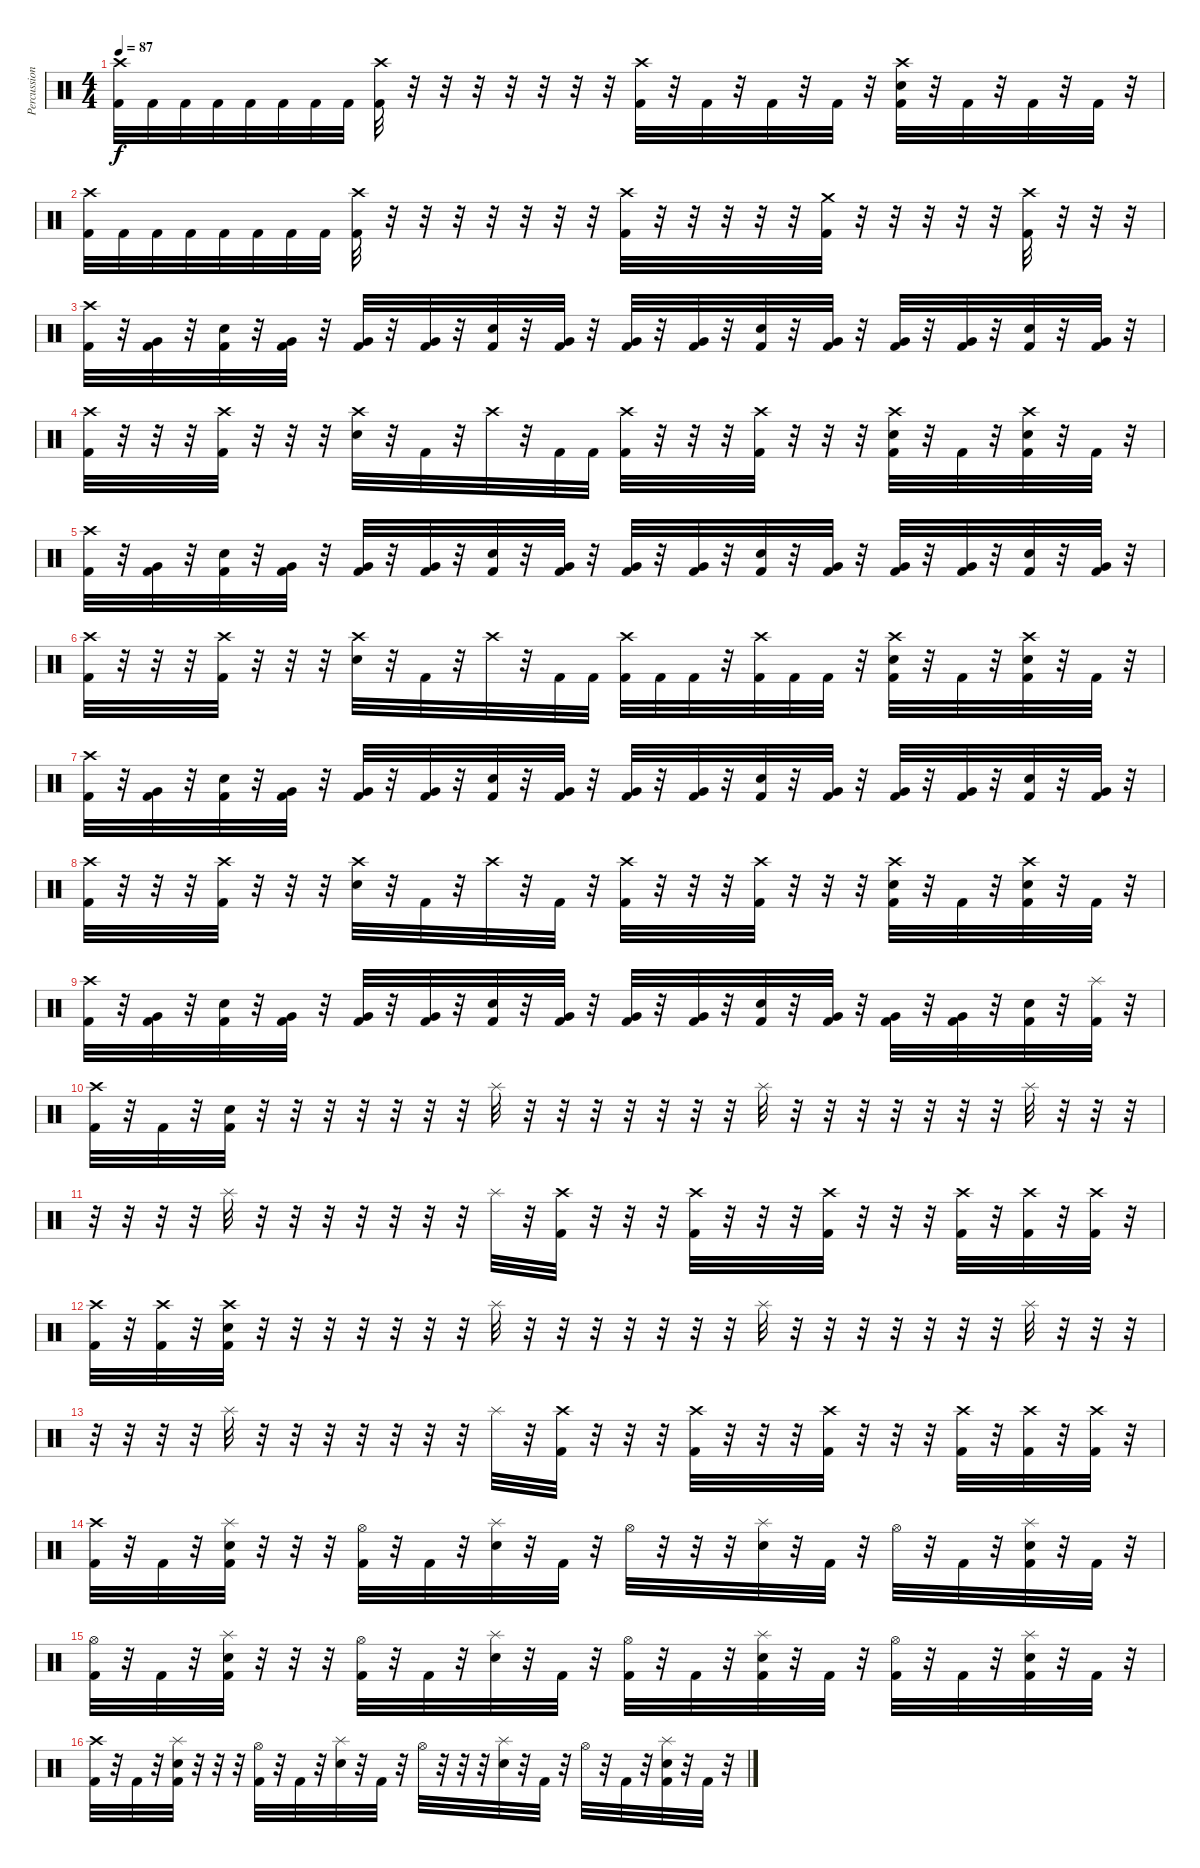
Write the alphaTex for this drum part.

\track ("Percussion" "Percussion") {instrument percussion}
\staff {score}
\articulation defaults
\ts (4 4)
\tempo 87
\clef neutral
\ks c
("Crash high (hit)" "Kick (hit) 2").32{dy f} "Kick (hit) 2".32 "Kick (hit) 2".32 "Kick (hit) 2".32 "Kick (hit) 2".32 "Kick (hit) 2".32 "Kick (hit) 2".32 "Kick (hit) 2".32 ("Crash high (hit)" "Kick (hit) 2").32 r.32 r.32 r.32 r.32 r.32 r.32 r.32 ("Crash high (hit)" "Kick (hit) 2").32 r.32 "Kick (hit) 2".32 r.32 "Kick (hit) 2".32 r.32 "Kick (hit) 2".32 r.32 ("Crash high (hit)" "Electric Snare (hit)" "Kick (hit) 2").32 r.32 "Kick (hit) 2".32 r.32 "Kick (hit) 2".32 r.32 "Kick (hit) 2".32 r.32 |
("Crash high (hit)" "Kick (hit) 2").32 "Kick (hit) 2".32 "Kick (hit) 2".32 "Kick (hit) 2".32 "Kick (hit) 2".32 "Kick (hit) 2".32 "Kick (hit) 2".32 "Kick (hit) 2".32 ("Crash high (hit)" "Kick (hit) 2").32 r.32 r.32 r.32 r.32 r.32 r.32 r.32 ("Crash high (hit)" "Kick (hit) 2").32 r.32 r.32 r.32 r.32 r.32 ("Crash medium (hit)" "Kick (hit) 2").32 r.32 r.32 r.32 r.32 r.32 ("Crash high (hit)" "Kick (hit) 2").32 r.32 r.32 r.32 |
("Crash high (hit)" "Kick (hit) 2").32 r.32 ("Very Low Tom (hit)" "Kick (hit) 2").32 r.32 ("Electric Snare (hit)" "Kick (hit) 2").32 r.32 ("Very Low Tom (hit)" "Kick (hit) 2").32 r.32 ("Very Low Tom (hit)" "Kick (hit) 2").32 r.32 ("Very Low Tom (hit)" "Kick (hit) 2").32 r.32 ("Electric Snare (hit)" "Kick (hit) 2").32 r.32 ("Very Low Tom (hit)" "Kick (hit) 2").32 r.32 ("Very Low Tom (hit)" "Kick (hit) 2").32 r.32 ("Very Low Tom (hit)" "Kick (hit) 2").32 r.32 ("Electric Snare (hit)" "Kick (hit) 2").32 r.32 ("Very Low Tom (hit)" "Kick (hit) 2").32 r.32 ("Very Low Tom (hit)" "Kick (hit) 2").32 r.32 ("Very Low Tom (hit)" "Kick (hit) 2").32 r.32 ("Electric Snare (hit)" "Kick (hit) 2").32 r.32 ("Very Low Tom (hit)" "Kick (hit) 2").32 r.32 |
("Crash high (hit)" "Kick (hit) 2").32 r.32 r.32 r.32 ("Crash high (hit)" "Kick (hit) 2").32 r.32 r.32 r.32 ("Crash high (hit)" "Electric Snare (hit)").32 r.32 "Kick (hit) 2".32 r.32 "Crash high (hit)".32 r.32 "Kick (hit) 2".32 "Kick (hit) 2".32 ("Crash high (hit)" "Kick (hit) 2").32 r.32 r.32 r.32 ("Crash high (hit)" "Kick (hit) 2").32 r.32 r.32 r.32 ("Crash high (hit)" "Electric Snare (hit)" "Kick (hit) 2").32 r.32 "Kick (hit) 2".32 r.32 ("Crash high (hit)" "Electric Snare (hit)" "Kick (hit) 2").32 r.32 "Kick (hit) 2".32 r.32 |
("Crash high (hit)" "Kick (hit) 2").32 r.32 ("Very Low Tom (hit)" "Kick (hit) 2").32 r.32 ("Electric Snare (hit)" "Kick (hit) 2").32 r.32 ("Very Low Tom (hit)" "Kick (hit) 2").32 r.32 ("Very Low Tom (hit)" "Kick (hit) 2").32 r.32 ("Very Low Tom (hit)" "Kick (hit) 2").32 r.32 ("Electric Snare (hit)" "Kick (hit) 2").32 r.32 ("Very Low Tom (hit)" "Kick (hit) 2").32 r.32 ("Very Low Tom (hit)" "Kick (hit) 2").32 r.32 ("Very Low Tom (hit)" "Kick (hit) 2").32 r.32 ("Electric Snare (hit)" "Kick (hit) 2").32 r.32 ("Very Low Tom (hit)" "Kick (hit) 2").32 r.32 ("Very Low Tom (hit)" "Kick (hit) 2").32 r.32 ("Very Low Tom (hit)" "Kick (hit) 2").32 r.32 ("Electric Snare (hit)" "Kick (hit) 2").32 r.32 ("Very Low Tom (hit)" "Kick (hit) 2").32 r.32 |
("Crash high (hit)" "Kick (hit) 2").32 r.32 r.32 r.32 ("Crash high (hit)" "Kick (hit) 2").32 r.32 r.32 r.32 ("Crash high (hit)" "Electric Snare (hit)").32 r.32 "Kick (hit) 2".32 r.32 "Crash high (hit)".32 r.32 "Kick (hit) 2".32 "Kick (hit) 2".32 ("Crash high (hit)" "Kick (hit) 2").32 "Kick (hit) 2".32 "Kick (hit) 2".32 r.32 ("Crash high (hit)" "Kick (hit) 2").32 "Kick (hit) 2".32 "Kick (hit) 2".32 r.32 ("Crash high (hit)" "Electric Snare (hit)" "Kick (hit) 2").32 r.32 "Kick (hit) 2".32 r.32 ("Crash high (hit)" "Electric Snare (hit)" "Kick (hit) 2").32 r.32 "Kick (hit) 2".32 r.32 |
("Crash high (hit)" "Kick (hit) 2").32 r.32 ("Very Low Tom (hit)" "Kick (hit) 2").32 r.32 ("Electric Snare (hit)" "Kick (hit) 2").32 r.32 ("Very Low Tom (hit)" "Kick (hit) 2").32 r.32 ("Very Low Tom (hit)" "Kick (hit) 2").32 r.32 ("Very Low Tom (hit)" "Kick (hit) 2").32 r.32 ("Electric Snare (hit)" "Kick (hit) 2").32 r.32 ("Very Low Tom (hit)" "Kick (hit) 2").32 r.32 ("Very Low Tom (hit)" "Kick (hit) 2").32 r.32 ("Very Low Tom (hit)" "Kick (hit) 2").32 r.32 ("Electric Snare (hit)" "Kick (hit) 2").32 r.32 ("Very Low Tom (hit)" "Kick (hit) 2").32 r.32 ("Very Low Tom (hit)" "Kick (hit) 2").32 r.32 ("Very Low Tom (hit)" "Kick (hit) 2").32 r.32 ("Electric Snare (hit)" "Kick (hit) 2").32 r.32 ("Very Low Tom (hit)" "Kick (hit) 2").32 r.32 |
("Crash high (hit)" "Kick (hit) 2").32 r.32 r.32 r.32 ("Crash high (hit)" "Kick (hit) 2").32 r.32 r.32 r.32 ("Crash high (hit)" "Electric Snare (hit)").32 r.32 "Kick (hit) 2".32 r.32 "Crash high (hit)".32 r.32 "Kick (hit) 2".32 r.32 ("Crash high (hit)" "Kick (hit) 2").32 r.32 r.32 r.32 ("Crash high (hit)" "Kick (hit) 2").32 r.32 r.32 r.32 ("Crash high (hit)" "Electric Snare (hit)" "Kick (hit) 2").32 r.32 "Kick (hit) 2".32 r.32 ("Crash high (hit)" "Electric Snare (hit)" "Kick (hit) 2").32 r.32 "Kick (hit) 2".32 r.32 |
("Crash high (hit)" "Kick (hit) 2").32 r.32 ("Very Low Tom (hit)" "Kick (hit) 2").32 r.32 ("Electric Snare (hit)" "Kick (hit) 2").32 r.32 ("Very Low Tom (hit)" "Kick (hit) 2").32 r.32 ("Very Low Tom (hit)" "Kick (hit) 2").32 r.32 ("Very Low Tom (hit)" "Kick (hit) 2").32 r.32 ("Electric Snare (hit)" "Kick (hit) 2").32 r.32 ("Very Low Tom (hit)" "Kick (hit) 2").32 r.32 ("Very Low Tom (hit)" "Kick (hit) 2").32 r.32 ("Very Low Tom (hit)" "Kick (hit) 2").32 r.32 ("Electric Snare (hit)" "Kick (hit) 2").32 r.32 ("Very Low Tom (hit)" "Kick (hit) 2").32 r.32 ("Very Low Tom (hit)" "Kick (hit) 2").32 r.32 ("Very Low Tom (hit)" "Kick (hit) 2").32 r.32 ("Electric Snare (hit)" "Kick (hit) 2").32 r.32 ("Splash (hit)" "Kick (hit) 2").32 r.32 |
("Crash high (hit)" "Kick (hit) 2").32 r.32 "Kick (hit) 2".32 r.32 ("Electric Snare (hit)" "Kick (hit) 2").32 r.32 r.32 r.32 r.32 r.32 r.32 r.32 "Splash (hit)".32 r.32 r.32 r.32 r.32 r.32 r.32 r.32 "Splash (hit)".32 r.32 r.32 r.32 r.32 r.32 r.32 r.32 "Splash (hit)".32 r.32 r.32 r.32 |
r.32 r.32 r.32 r.32 "Splash (hit)".32 r.32 r.32 r.32 r.32 r.32 r.32 r.32 "Splash (hit)".32 r.32 ("Crash high (hit)" "Kick (hit) 2").32 r.32 r.32 r.32 ("Crash high (hit)" "Kick (hit) 2").32 r.32 r.32 r.32 ("Crash high (hit)" "Kick (hit) 2").32 r.32 r.32 r.32 ("Crash high (hit)" "Kick (hit) 2").32 r.32 ("Crash high (hit)" "Kick (hit) 2").32 r.32 ("Crash high (hit)" "Kick (hit) 2").32 r.32 |
("Crash high (hit)" "Kick (hit) 2").32 r.32 ("Crash high (hit)" "Kick (hit) 2").32 r.32 ("Crash high (hit)" "Electric Snare (hit)" "Kick (hit) 2").32 r.32 r.32 r.32 r.32 r.32 r.32 r.32 "Splash (hit)".32 r.32 r.32 r.32 r.32 r.32 r.32 r.32 "Splash (hit)".32 r.32 r.32 r.32 r.32 r.32 r.32 r.32 "Splash (hit)".32 r.32 r.32 r.32 |
r.32 r.32 r.32 r.32 "Splash (hit)".32 r.32 r.32 r.32 r.32 r.32 r.32 r.32 "Splash (hit)".32 r.32 ("Crash high (hit)" "Kick (hit) 2").32 r.32 r.32 r.32 ("Crash high (hit)" "Kick (hit) 2").32 r.32 r.32 r.32 ("Crash high (hit)" "Kick (hit) 2").32 r.32 r.32 r.32 ("Crash high (hit)" "Kick (hit) 2").32 r.32 ("Crash high (hit)" "Kick (hit) 2").32 r.32 ("Crash high (hit)" "Kick (hit) 2").32 r.32 |
("Crash high (hit)" "Kick (hit) 2").32 r.32 "Kick (hit) 2".32 r.32 ("Splash (hit)" "Electric Snare (hit)" "Kick (hit) 2").32 r.32 r.32 r.32 ("Hi-Hat (open)" "Kick (hit) 2").32 r.32 "Kick (hit) 2".32 r.32 ("Splash (hit)" "Electric Snare (hit)").32 r.32 "Kick (hit) 2".32 r.32 "Hi-Hat (open)".32 r.32 r.32 r.32 ("Splash (hit)" "Electric Snare (hit)").32 r.32 "Kick (hit) 2".32 r.32 "Hi-Hat (open)".32 r.32 "Kick (hit) 2".32 r.32 ("Splash (hit)" "Electric Snare (hit)" "Kick (hit) 2").32 r.32 "Kick (hit) 2".32 r.32 |
("Hi-Hat (open)" "Kick (hit) 2").32 r.32 "Kick (hit) 2".32 r.32 ("Splash (hit)" "Electric Snare (hit)" "Kick (hit) 2").32 r.32 r.32 r.32 ("Hi-Hat (open)" "Kick (hit) 2").32 r.32 "Kick (hit) 2".32 r.32 ("Splash (hit)" "Electric Snare (hit)").32 r.32 "Kick (hit) 2".32 r.32 ("Hi-Hat (open)" "Kick (hit) 2").32 r.32 "Kick (hit) 2".32 r.32 ("Splash (hit)" "Electric Snare (hit)" "Kick (hit) 2").32 r.32 "Kick (hit) 2".32 r.32 ("Hi-Hat (open)" "Kick (hit) 2").32 r.32 "Kick (hit) 2".32 r.32 ("Splash (hit)" "Electric Snare (hit)" "Kick (hit) 2").32 r.32 "Kick (hit) 2".32 r.32 |
("Crash high (hit)" "Kick (hit) 2").32 r.32 "Kick (hit) 2".32 r.32 ("Splash (hit)" "Electric Snare (hit)" "Kick (hit) 2").32 r.32 r.32 r.32 ("Hi-Hat (open)" "Kick (hit) 2").32 r.32 "Kick (hit) 2".32 r.32 ("Splash (hit)" "Electric Snare (hit)").32 r.32 "Kick (hit) 2".32 r.32 "Hi-Hat (open)".32 r.32 r.32 r.32 ("Splash (hit)" "Electric Snare (hit)").32 r.32 "Kick (hit) 2".32 r.32 "Hi-Hat (open)".32 r.32 "Kick (hit) 2".32 r.32 ("Splash (hit)" "Electric Snare (hit)" "Kick (hit) 2").32 r.32 "Kick (hit) 2".32 r.32
